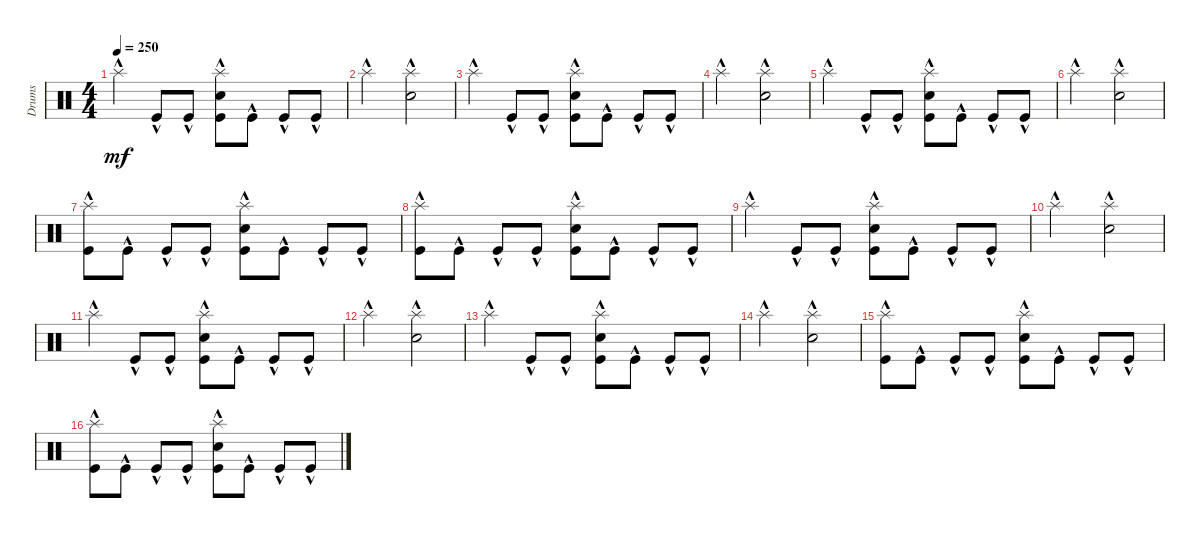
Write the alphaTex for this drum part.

\track ("Drums" "Drums") {instrument percussion}
\staff {score}
\articulation defaults
\ts (4 4)
\tempo 250
\clef neutral
\ks c "Splash (hit)"{hac}.4{dy mf} "Kick (hit)"{hac}.8 "Kick (hit)"{hac}.8
("Kick (hit)"{hac} "Snare (hit) 2"{hac} "Splash (hit)"{hac}).8 "Kick (hit)"{hac}.8 "Kick (hit)"{hac}.8 "Kick (hit)"{hac}.8 |
"Splash (hit)"{hac}.2 ("Splash (hit)"{hac} "Snare (hit) 2"{hac}).2 |
"Splash (hit)"{hac}.4 "Kick (hit)"{hac}.8 "Kick (hit)"{hac}.8 ("Kick (hit)"{hac} "Snare (hit) 2"{hac} "Splash (hit)"{hac}).8 "Kick (hit)"{hac}.8 "Kick (hit)"{hac}.8 "Kick (hit)"{hac}.8 |
"Splash (hit)"{hac}.2 ("Splash (hit)"{hac} "Snare (hit) 2"{hac}).2 |
"Splash (hit)"{hac}.4 "Kick (hit)"{hac}.8 "Kick (hit)"{hac}.8 ("Kick (hit)"{hac} "Snare (hit) 2"{hac} "Splash (hit)"{hac}).8 "Kick (hit)"{hac}.8 "Kick (hit)"{hac}.8 "Kick (hit)"{hac}.8 |
"Splash (hit)"{hac}.2 ("Splash (hit)"{hac} "Snare (hit) 2"{hac}).2 |
("Kick (hit)"{hac} "Splash (hit)"{hac}).8 "Kick (hit)"{hac}.8 "Kick (hit)"{hac}.8 "Kick (hit)"{hac}.8 ("Kick (hit)"{hac} "Splash (hit)"{hac} "Snare (hit) 2"{hac}).8 "Kick (hit)"{hac}.8 "Kick (hit)"{hac}.8 "Kick (hit)"{hac}.8 |
("Kick (hit)"{hac} "Splash (hit)"{hac}).8 "Kick (hit)"{hac}.8 "Kick (hit)"{hac}.8 "Kick (hit)"{hac}.8 ("Kick (hit)"{hac} "Splash (hit)"{hac} "Snare (hit) 2"{hac}).8 "Kick (hit)"{hac}.8 "Kick (hit)"{hac}.8 "Kick (hit)"{hac}.8 |
"Splash (hit)"{hac}.4 "Kick (hit)"{hac}.8 "Kick (hit)"{hac}.8 ("Kick (hit)"{hac} "Snare (hit) 2"{hac} "Splash (hit)"{hac}).8 "Kick (hit)"{hac}.8 "Kick (hit)"{hac}.8 "Kick (hit)"{hac}.8 |
"Splash (hit)"{hac}.2 ("Splash (hit)"{hac} "Snare (hit) 2"{hac}).2 |
"Splash (hit)"{hac}.4 "Kick (hit)"{hac}.8 "Kick (hit)"{hac}.8 ("Kick (hit)"{hac} "Snare (hit) 2"{hac} "Splash (hit)"{hac}).8 "Kick (hit)"{hac}.8 "Kick (hit)"{hac}.8 "Kick (hit)"{hac}.8 |
"Splash (hit)"{hac}.2 ("Splash (hit)"{hac} "Snare (hit) 2"{hac}).2 |
"Splash (hit)"{hac}.4 "Kick (hit)"{hac}.8 "Kick (hit)"{hac}.8 ("Kick (hit)"{hac} "Snare (hit) 2"{hac} "Splash (hit)"{hac}).8 "Kick (hit)"{hac}.8 "Kick (hit)"{hac}.8 "Kick (hit)"{hac}.8 |
"Splash (hit)"{hac}.2 ("Splash (hit)"{hac} "Snare (hit) 2"{hac}).2 |
("Kick (hit)"{hac} "Splash (hit)"{hac}).8 "Kick (hit)"{hac}.8 "Kick (hit)"{hac}.8 "Kick (hit)"{hac}.8 ("Kick (hit)"{hac} "Splash (hit)"{hac} "Snare (hit) 2"{hac}).8 "Kick (hit)"{hac}.8 "Kick (hit)"{hac}.8 "Kick (hit)"{hac}.8 |
("Kick (hit)"{hac} "Splash (hit)"{hac}).8 "Kick (hit)"{hac}.8 "Kick (hit)"{hac}.8 "Kick (hit)"{hac}.8 ("Kick (hit)"{hac} "Splash (hit)"{hac} "Snare (hit) 2"{hac}).8 "Kick (hit)"{hac}.8 "Kick (hit)"{hac}.8 "Kick (hit)"{hac}.8
